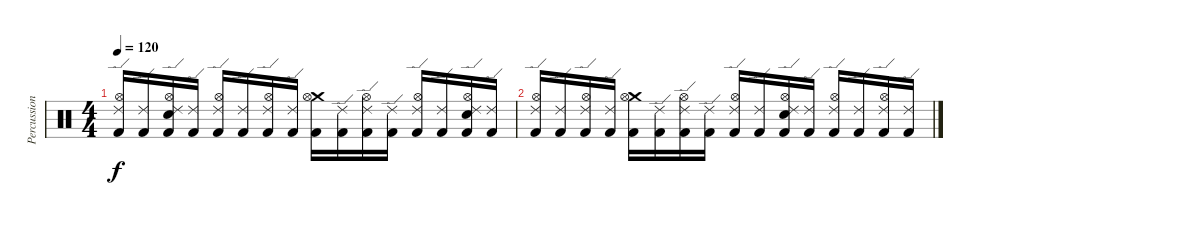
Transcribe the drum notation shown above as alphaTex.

\track ("Percussion" "Percussion") {instrument percussion}
\staff {score}
\articulation defaults
\ts (4 4)
\tempo 120
\clef neutral
\ks c
("Ride (edge) 2" "Hi-Hat (open)" "Kick (hit) 2").16{dy f} ("Ride (edge) 2" "Kick (hit) 2").16 ("Ride (edge) 2" "Hi-Hat (open)" "Electric Snare (hit)" "Kick (hit) 2").16 ("Ride (edge) 2" "Kick (hit) 2").16 ("Ride (edge) 2" "Hi-Hat (open)" "Kick (hit) 2").16 ("Ride (edge) 2" "Kick (hit) 2").16 ("Ride (edge) 2" "Hi-Hat (open)" "Kick (hit) 2").16 ("Ride (edge) 2" "Kick (hit) 2").16 ("Crash medium (hit)" "Hi-Hat (open)" "Kick (hit) 2").16 ("Ride (edge) 2" "Kick (hit) 2").16 ("Ride (edge) 2" "Hi-Hat (open)" "Kick (hit) 2").16 ("Ride (edge) 2" "Kick (hit) 2").16 ("Ride (edge) 2" "Hi-Hat (open)" "Kick (hit) 2").16 ("Ride (edge) 2" "Kick (hit) 2").16 ("Ride (edge) 2" "Hi-Hat (open)" "Electric Snare (hit)" "Kick (hit) 2").16 ("Ride (edge) 2" "Kick (hit) 2").16 |
("Ride (edge) 2" "Hi-Hat (open)" "Kick (hit) 2").16 ("Ride (edge) 2" "Kick (hit) 2").16 ("Ride (edge) 2" "Hi-Hat (open)" "Kick (hit) 2").16 ("Ride (edge) 2" "Kick (hit) 2").16 ("Crash medium (hit)" "Hi-Hat (open)" "Kick (hit) 2").16 ("Ride (edge) 2" "Kick (hit) 2").16 ("Ride (edge) 2" "Hi-Hat (open)" "Kick (hit) 2").16 ("Ride (edge) 2" "Kick (hit) 2").16 ("Ride (edge) 2" "Hi-Hat (open)" "Kick (hit) 2").16 ("Ride (edge) 2" "Kick (hit) 2").16 ("Ride (edge) 2" "Hi-Hat (open)" "Electric Snare (hit)" "Kick (hit) 2").16 ("Ride (edge) 2" "Kick (hit) 2").16 ("Ride (edge) 2" "Hi-Hat (open)" "Kick (hit) 2").16 ("Ride (edge) 2" "Kick (hit) 2").16 ("Ride (edge) 2" "Hi-Hat (open)" "Kick (hit) 2").16 ("Ride (edge) 2" "Kick (hit) 2").16
